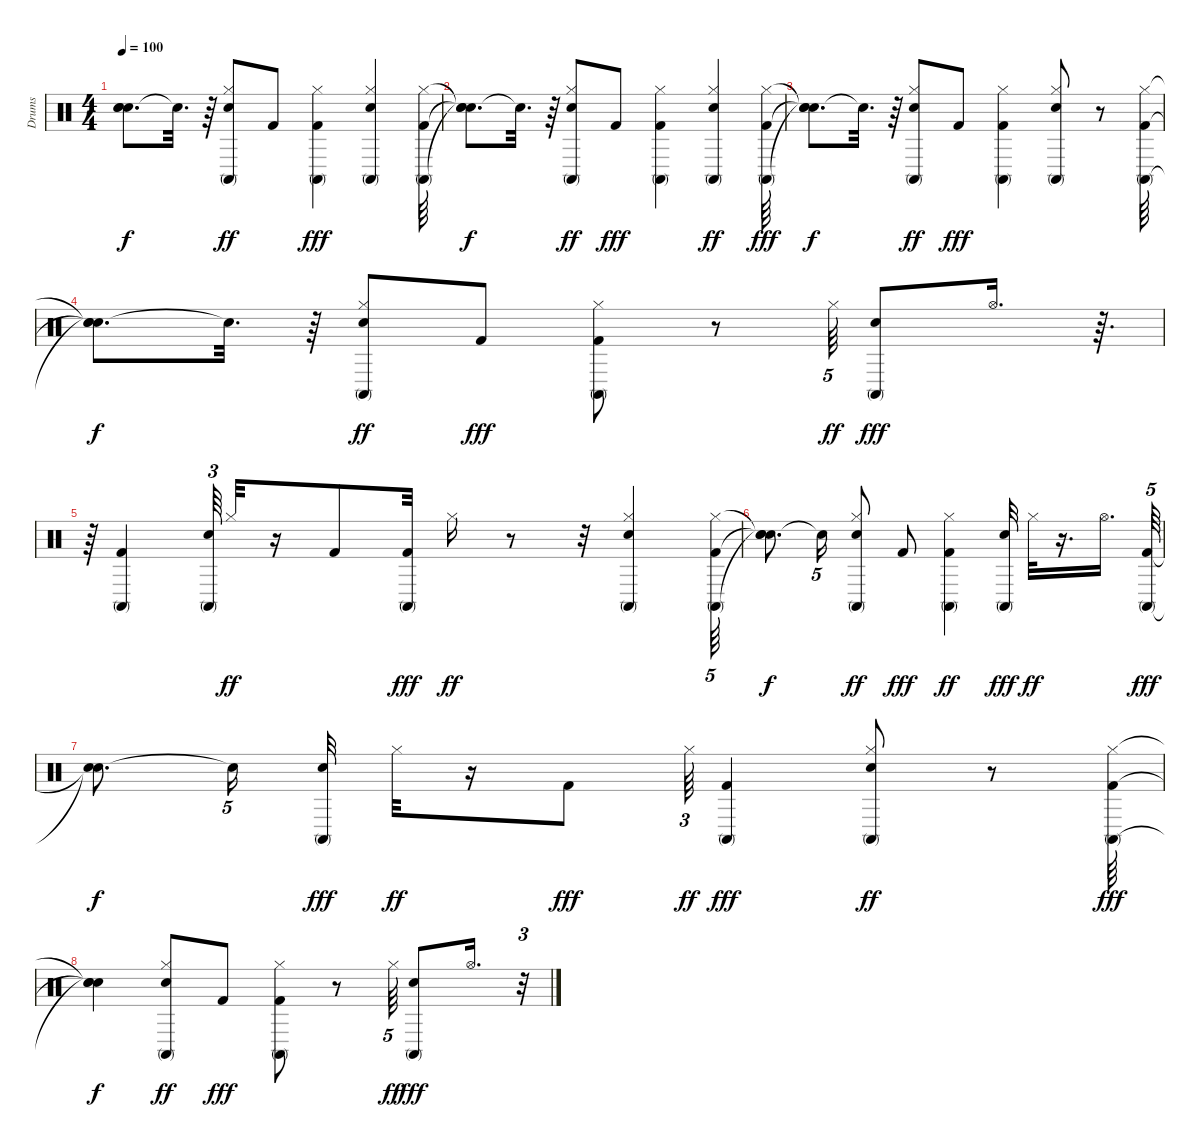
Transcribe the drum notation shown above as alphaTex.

\track ("Drums" "Drums") {instrument percussion}
\staff {score}
\articulation defaults
\ts (4 4)
\tempo 100
\clef neutral
\ks c
("Snare (hit)"{t} "Snare (hit)"{t} "Snare (hit)"{t}).8{d dy f} "Snare (hit)"{t}.32{d} r.64 ("Hi-Hat (closed)" "Snare (hit) 2" "Conga high (mute)").8{dy ff} "Kick (hit) 2".8 ("Hi-Hat (closed)" "Kick (hit) 2" "Conga high (mute)").4{dy fff} ("Hi-Hat (closed)" "Snare (hit) 2" "Conga high (mute)").4 ("Hi-Hat (closed)" "Kick (hit) 2" "Conga high (mute)").64 |
("Snare (hit)"{t} "Snare (hit)"{t} "Snare (hit)"{t}).8{d dy f} "Snare (hit)"{t}.32{d} r.64 ("Snare (hit) 2" "Conga high (mute)" "Hi-Hat (closed)").8{dy ff} "Kick (hit) 2".8{dy fff} ("Hi-Hat (closed)" "Kick (hit) 2" "Conga high (mute)").4 ("Snare (hit) 2" "Conga high (mute)" "Hi-Hat (closed)").4{dy ff} ("Hi-Hat (closed)" "Kick (hit) 2" "Conga high (mute)").64{dy fff} |
("Snare (hit)"{t} "Snare (hit)"{t} "Snare (hit)"{t}).8{d dy f} "Snare (hit)"{t}.32{d} r.64 ("Snare (hit) 2" "Conga high (mute)" "Hi-Hat (closed)").8{dy ff} "Kick (hit) 2".8{dy fff} ("Hi-Hat (closed)" "Kick (hit) 2" "Conga high (mute)").4 ("Hi-Hat (closed)" "Snare (hit) 2" "Conga high (mute)").8 r.8 ("Hi-Hat (closed)" "Kick (hit) 2" "Conga high (mute)").64 |
("Snare (hit)"{t} "Snare (hit)"{t} "Snare (hit)"{t}).8{d dy f} "Snare (hit)"{t}.32{d} r.64 ("Snare (hit) 2" "Conga high (mute)" "Hi-Hat (closed)").8{dy ff} "Kick (hit) 2".8{dy fff} ("Hi-Hat (closed)" "Kick (hit) 2" "Conga high (mute)").8 r.8 "Hi-Hat (closed)".64{tu (5 4) dy ff} ("Conga high (mute)" "Snare (hit) 2").8{dy fff} "Hi-Hat (open)".16{d} r.64{d} |
r.64 ("Conga high (mute)" "Kick (hit) 2").4 ("Snare (hit) 2" "Conga high (mute)").64{tu (3 2)} "Hi-Hat (closed)".32{dy ff} r.16 "Kick (hit) 2".8 ("Kick (hit) 2" "Conga high (mute)").32{dy fff} "Hi-Hat (closed)".16{dy ff} r.8 r.32 ("Snare (hit) 2" "Conga high (mute)" "Hi-Hat (closed)").4 ("Kick (hit) 2" "Conga high (mute)" "Hi-Hat (closed)").64{tu (5 4)} |
("Snare (hit)"{t} "Snare (hit)"{t} "Snare (hit)"{t}).8{d dy f} "Snare (hit)"{t}.16{tu (5 4)} ("Snare (hit) 2" "Conga high (mute)" "Hi-Hat (closed)").8{dy ff} "Kick (hit) 2".8{dy fff} ("Conga high (mute)" "Kick (hit) 2" "Hi-Hat (closed)").4{dy ff} ("Snare (hit) 2" "Conga high (mute)").32{dy fff} "Hi-Hat (closed)".32{dy ff} r.16{d} "Hi-Hat (open)".16{d} ("Conga high (mute)" "Kick (hit) 2").64{tu (5 4) dy fff} |
("Snare (hit)"{t} "Snare (hit)"{t}).8{d dy f} "Snare (hit)"{t}.16{tu (5 4)} ("Snare (hit) 2" "Conga high (mute)").32{dy fff} "Hi-Hat (closed)".32{dy ff} r.16 "Kick (hit) 2".8{dy fff} "Hi-Hat (closed)".64{tu (3 2) dy ff} ("Conga high (mute)" "Kick (hit) 2").4{dy fff} ("Snare (hit) 2" "Conga high (mute)" "Hi-Hat (closed)").8{dy ff} r.8 ("Hi-Hat (closed)" "Kick (hit) 2" "Conga high (mute)").64{dy fff} |
("Snare (hit)"{t} "Snare (hit)"{t} "Snare (hit)"{t}).4{dy f} ("Snare (hit) 2" "Conga high (mute)" "Hi-Hat (closed)").8{dy ff} "Kick (hit) 2".8{dy fff} ("Hi-Hat (closed)" "Kick (hit) 2" "Conga high (mute)").8 r.8 "Hi-Hat (closed)".64{tu (5 4) dy ff} ("Conga high (mute)" "Snare (hit) 2").8{dy fff} "Hi-Hat (open)".16{d} r.32{tu (3 2)}
